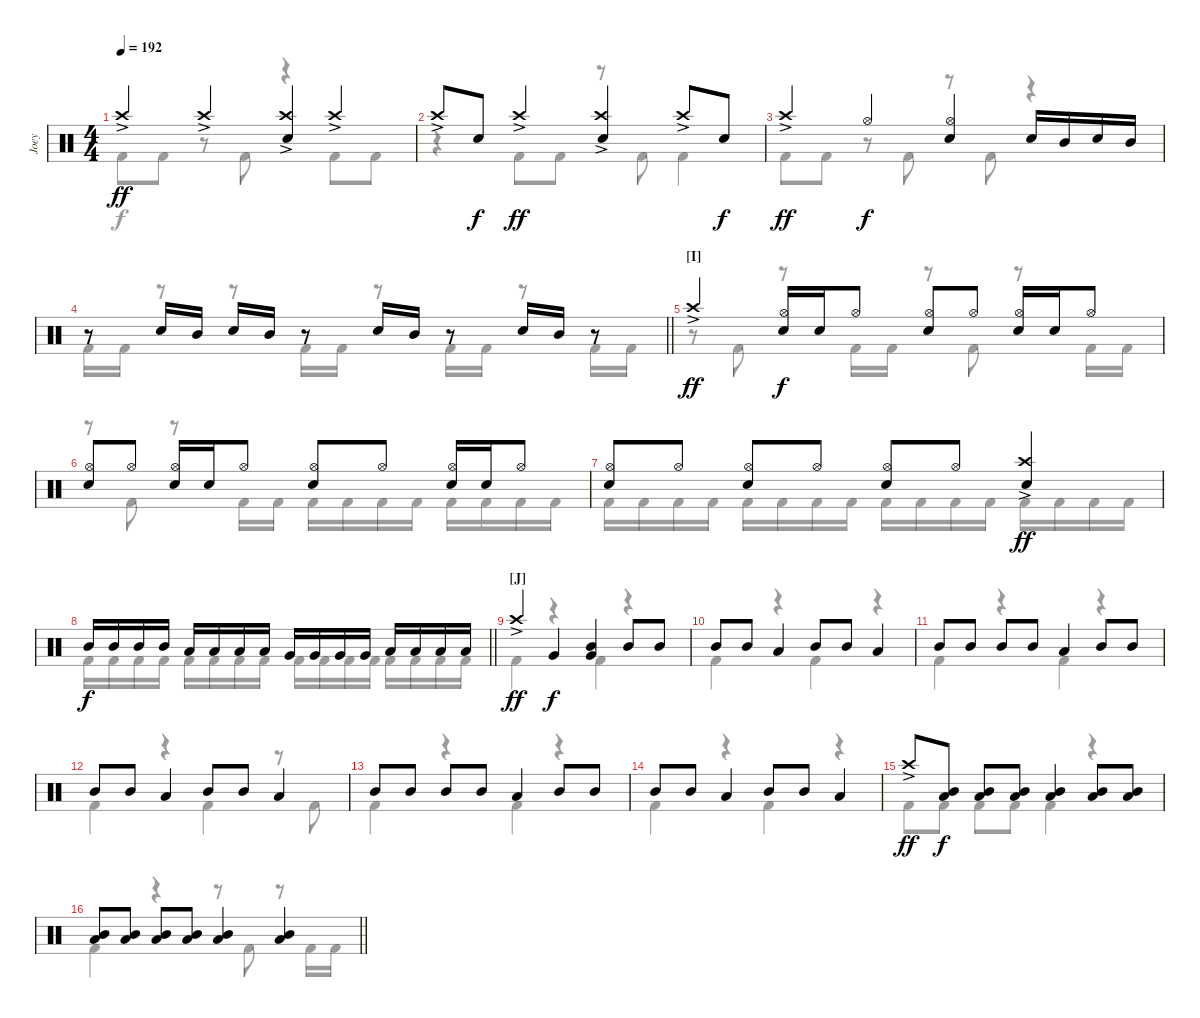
\track ("Joey" "Joey") {instrument percussion}
\staff {score}
\articulation defaults
\voice
\ts (4 4)
\tempo 192
\clef neutral
\ks c "Crash high (hit)"{ac}.4{dy ff} "Crash high (hit)"{ac}.4
("Crash high (hit)"{ac} "Snare (hit) 2").4 "Crash high (hit)"{ac}.4 |
"Crash high (hit)"{ac}.8 "Snare (hit) 2".8{dy f} "Crash high (hit)"{ac}.4{dy ff} ("Crash high (hit)"{ac} "Snare (hit) 2").4 "Crash high (hit)"{ac}.8 "Snare (hit) 2".8{dy f} |
"Crash high (hit)"{ac}.4{dy ff} "Hi-Hat (open)".4{dy f} ("Hi-Hat (open)" "Snare (hit) 2").4 "Snare (hit) 2".16 "Mid Tom (hit)".16 "Snare (hit) 2".16 "Mid Tom (hit)".16 |
\barLineRight lightlight
r.8 "Snare (hit) 2".16 "Mid Tom (hit)".16 "Snare (hit) 2".16 "Mid Tom (hit)".16 r.8 "Snare (hit) 2".16 "Mid Tom (hit)".16 r.8 "Snare (hit) 2".16 "Mid Tom (hit)".16 r.8 |
\section ("" "[I]")
"Crash high (hit)"{ac}.4{dy ff} ("Hi-Hat (open)" "Snare (hit) 2").16{dy f} "Snare (hit) 2".16 "Hi-Hat (open)".8 ("Hi-Hat (open)" "Snare (hit) 2").8 "Hi-Hat (open)".8 ("Hi-Hat (open)" "Snare (hit) 2").16 "Snare (hit) 2".16 "Hi-Hat (open)".8 |
("Hi-Hat (open)" "Snare (hit) 2").8 "Hi-Hat (open)".8 ("Hi-Hat (open)" "Snare (hit) 2").16 "Snare (hit) 2".16 "Hi-Hat (open)".8 ("Hi-Hat (open)" "Snare (hit) 2").8 "Hi-Hat (open)".8 ("Hi-Hat (open)" "Snare (hit) 2").16 "Snare (hit) 2".16 "Hi-Hat (open)".8 |
("Hi-Hat (open)" "Snare (hit) 2").8 "Hi-Hat (open)".8 ("Hi-Hat (open)" "Snare (hit) 2").8 "Hi-Hat (open)".8 ("Hi-Hat (open)" "Snare (hit) 2").8 "Hi-Hat (open)".8 ("Crash high (hit)"{ac} "Snare (hit) 2").4{dy ff} |
\barLineRight lightlight "Mid Tom (hit)".16{dy f} "Mid Tom (hit)".16 "Mid Tom (hit)".16 "Mid Tom (hit)".16 "Low Tom (hit)".16 "Low Tom (hit)".16 "Low Tom (hit)".16 "Low Tom (hit)".16 "Very Low Tom (hit)".16 "Very Low Tom (hit)".16 "Very Low Tom (hit)".16 "Very Low Tom (hit)".16 "Low Floor Tom (hit)".16 "Low Floor Tom (hit)".16 "Low Floor Tom (hit)".16 "Low Floor Tom (hit)".16
|
\section ("" "[J]")
"Crash high (hit)"{ac}.4{dy ff} "Very Low Tom (hit)".4{dy f} ("Mid Tom (hit)" "Very Low Tom (hit)").4 "Mid Tom (hit)".8 "Mid Tom (hit)".8 |
"Mid Tom (hit)".8 "Mid Tom (hit)".8 "Low Tom (hit)".4 "Mid Tom (hit)".8 "Mid Tom (hit)".8 "Low Tom (hit)".4 |
"Mid Tom (hit)".8 "Mid Tom (hit)".8 "Mid Tom (hit)".8 "Mid Tom (hit)".8 "Low Tom (hit)".4 "Mid Tom (hit)".8 "Mid Tom (hit)".8 |
"Mid Tom (hit)".8 "Mid Tom (hit)".8 "Low Tom (hit)".4 "Mid Tom (hit)".8 "Mid Tom (hit)".8 "Low Tom (hit)".4 |
"Mid Tom (hit)".8 "Mid Tom (hit)".8 "Mid Tom (hit)".8 "Mid Tom (hit)".8 "Low Tom (hit)".4 "Mid Tom (hit)".8 "Mid Tom (hit)".8 |
"Mid Tom (hit)".8 "Mid Tom (hit)".8 "Low Tom (hit)".4 "Mid Tom (hit)".8 "Mid Tom (hit)".8 "Low Tom (hit)".4 |
"Crash high (hit)"{ac}.8{dy ff} ("Mid Tom (hit)" "Low Tom (hit)").8{dy f} ("Mid Tom (hit)" "Low Tom (hit)").8 ("Mid Tom (hit)" "Low Tom (hit)").8 ("Mid Tom (hit)" "Low Tom (hit)").4 ("Mid Tom (hit)" "Low Tom (hit)").8 ("Mid Tom (hit)" "Low Tom (hit)").8 |
\barLineRight lightlight
("Mid Tom (hit)" "Low Tom (hit)").8 ("Mid Tom (hit)" "Low Tom (hit)").8 ("Mid Tom (hit)" "Low Tom (hit)").8 ("Mid Tom (hit)" "Low Tom (hit)").8 ("Mid Tom (hit)" "Low Tom (hit)").4 ("Mid Tom (hit)" "Low Tom (hit)").4
\voice
\clef neutral
\ottava regular
\simile none
\ks c "Kick (hit) 2".8{dy f} "Kick (hit) 2".8
r.8 "Kick (hit) 2".8 r.4 "Kick (hit) 2".8 "Kick (hit) 2".8 |
r.4 "Kick (hit) 2".8 "Kick (hit) 2".8 r.8 "Kick (hit) 2".8 "Kick (hit) 2".4 |
"Kick (hit) 2".8 "Kick (hit) 2".8 r.8 "Kick (hit) 2".8 r.8 "Kick (hit) 2".8 r.4 |
\barLineRight lightlight "Kick (hit) 2".16 "Kick (hit) 2".16
r.8 r.8 "Kick (hit) 2".16 "Kick (hit) 2".16 r.8 "Kick (hit) 2".16 "Kick (hit) 2".16 r.8 "Kick (hit) 2".16 "Kick (hit) 2".16 |
r.8 "Kick (hit) 2".8 r.8 "Kick (hit) 2".16 "Kick (hit) 2".16 r.8 "Kick (hit) 2".8 r.8 "Kick (hit) 2".16 "Kick (hit) 2".16 |
r.8 "Kick (hit) 2".8 r.8 "Kick (hit) 2".16 "Kick (hit) 2".16 "Kick (hit) 2".16 "Kick (hit) 2".16 "Kick (hit) 2".16 "Kick (hit) 2".16 "Kick (hit) 2".16 "Kick (hit) 2".16 "Kick (hit) 2".16 "Kick (hit) 2".16 |
"Kick (hit) 2".16 "Kick (hit) 2".16 "Kick (hit) 2".16 "Kick (hit) 2".16 "Kick (hit) 2".16 "Kick (hit) 2".16 "Kick (hit) 2".16 "Kick (hit) 2".16 "Kick (hit) 2".16 "Kick (hit) 2".16 "Kick (hit) 2".16 "Kick (hit) 2".16 "Kick (hit) 2".16 "Kick (hit) 2".16 "Kick (hit) 2".16 "Kick (hit) 2".16 |
\barLineRight lightlight "Kick (hit) 2".16 "Kick (hit) 2".16 "Kick (hit) 2".16 "Kick (hit) 2".16 "Kick (hit) 2".16 "Kick (hit) 2".16 "Kick (hit) 2".16 "Kick (hit) 2".16 "Kick (hit) 2".16 "Kick (hit) 2".16 "Kick (hit) 2".16 "Kick (hit) 2".16 "Kick (hit) 2".16 "Kick (hit) 2".16 "Kick (hit) 2".16 "Kick (hit) 2".16
|
"Kick (hit) 2".4 r.4 "Kick (hit) 2".4 r.4 |
"Kick (hit) 2".4 r.4 "Kick (hit) 2".4 r.4 |
"Kick (hit) 2".4 r.4 "Kick (hit) 2".4 r.4 |
"Kick (hit) 2".4 r.4 "Kick (hit) 2".4 r.8 "Kick (hit) 2".8 |
"Kick (hit) 2".4 r.4 "Kick (hit) 2".4 r.4 |
"Kick (hit) 2".4 r.4 "Kick (hit) 2".4 r.4 |
"Kick (hit) 2".8 "Kick (hit) 2".8 "Kick (hit) 2".8 "Kick (hit) 2".8 "Kick (hit) 2".4 r.4 |
\barLineRight lightlight "Kick (hit) 2".4
r.4 r.8 "Kick (hit) 2".8 r.8 "Kick (hit) 2".16 "Kick (hit) 2".16
